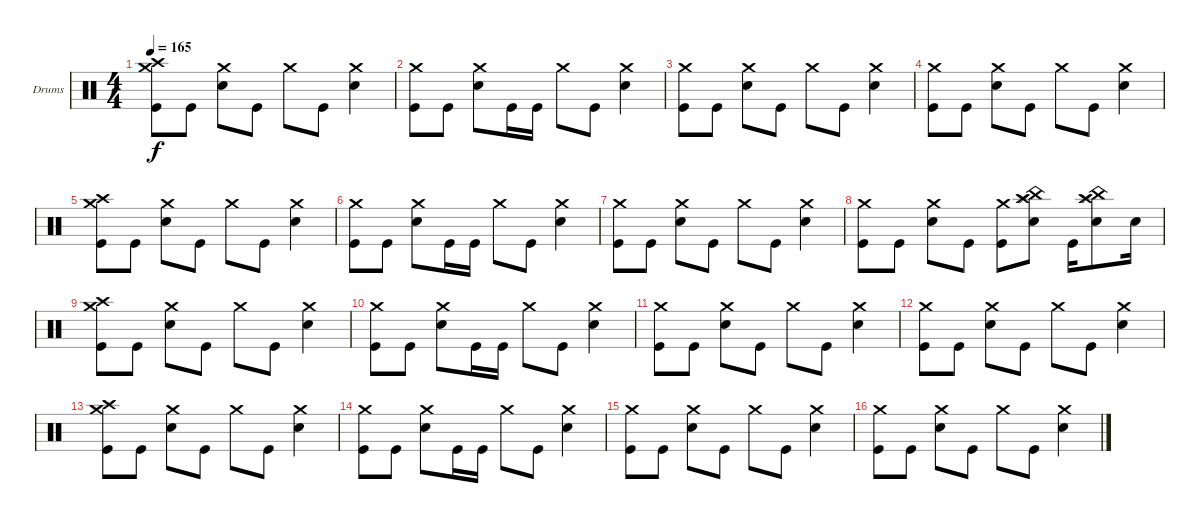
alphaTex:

\defaultSystemsLayout 4
\bracketExtendMode groupsimilarinstruments
\firstSystemTrackNameOrientation horizontal
\otherSystemsTrackNameOrientation horizontal
\track ("Drumkit" "Drums") {instrument percussion}
\staff {score}
\articulation defaults
\ts (4 4)
\tempo 165
\clef neutral
\ks c
("Kick (hit)" "Crash high (hit)" "Crash medium (hit)").8{dy f} "Kick (hit)".8 ("Snare (hit) 2" "Crash medium (hit)").8 "Kick (hit)".8 "Crash medium (hit)".8 "Kick (hit)".8 ("Snare (hit) 2" "Crash medium (hit)").4 |
("Kick (hit)" "Crash medium (hit)").8 "Kick (hit)".8 ("Snare (hit) 2" "Crash medium (hit)").8 "Kick (hit)".16 "Kick (hit)".16 "Crash medium (hit)".8 "Kick (hit)".8 ("Snare (hit) 2" "Crash medium (hit)").4 |
("Kick (hit)" "Crash medium (hit)").8 "Kick (hit)".8 ("Snare (hit) 2" "Crash medium (hit)").8 "Kick (hit)".8 "Crash medium (hit)".8 "Kick (hit)".8 ("Snare (hit) 2" "Crash medium (hit)").4 |
("Kick (hit)" "Crash medium (hit)").8 "Kick (hit)".8 ("Snare (hit) 2" "Crash medium (hit)").8 "Kick (hit)".8 "Crash medium (hit)".8 "Kick (hit)".8 ("Snare (hit) 2" "Crash medium (hit)").4 |
("Kick (hit)" "Crash high (hit)" "Crash medium (hit)").8 "Kick (hit)".8 ("Snare (hit) 2" "Crash medium (hit)").8 "Kick (hit)".8 "Crash medium (hit)".8 "Kick (hit)".8 ("Snare (hit) 2" "Crash medium (hit)").4 |
("Kick (hit)" "Crash medium (hit)").8 "Kick (hit)".8 ("Snare (hit) 2" "Crash medium (hit)").8 "Kick (hit)".16 "Kick (hit)".16 "Crash medium (hit)".8 "Kick (hit)".8 ("Snare (hit) 2" "Crash medium (hit)").4 |
("Kick (hit)" "Crash medium (hit)").8 "Kick (hit)".8 ("Snare (hit) 2" "Crash medium (hit)").8 "Kick (hit)".8 "Crash medium (hit)".8 "Kick (hit)".8 ("Snare (hit) 2" "Crash medium (hit)").4 |
("Kick (hit)" "Crash medium (hit)").8 "Kick (hit)".8 ("Snare (hit) 2" "Crash medium (hit)").8 "Kick (hit)".8 ("Kick (hit)" "Crash medium (hit)").8 ("Snare (hit) 2" "Splash (hit)" "Crash high (hit)" "China (hit)").8 "Kick (hit)".16 ("Snare (hit) 2" "Splash (hit)" "Crash high (hit)" "China (hit)").8 "Snare (hit) 2".16 |
("Kick (hit)" "Crash high (hit)" "Crash medium (hit)").8 "Kick (hit)".8 ("Snare (hit) 2" "Crash medium (hit)").8 "Kick (hit)".8 "Crash medium (hit)".8 "Kick (hit)".8 ("Snare (hit) 2" "Crash medium (hit)").4 |
("Kick (hit)" "Crash medium (hit)").8 "Kick (hit)".8 ("Snare (hit) 2" "Crash medium (hit)").8 "Kick (hit)".16 "Kick (hit)".16 "Crash medium (hit)".8 "Kick (hit)".8 ("Snare (hit) 2" "Crash medium (hit)").4 |
("Kick (hit)" "Crash medium (hit)").8 "Kick (hit)".8 ("Snare (hit) 2" "Crash medium (hit)").8 "Kick (hit)".8 "Crash medium (hit)".8 "Kick (hit)".8 ("Snare (hit) 2" "Crash medium (hit)").4 |
("Kick (hit)" "Crash medium (hit)").8 "Kick (hit)".8 ("Snare (hit) 2" "Crash medium (hit)").8 "Kick (hit)".8 "Crash medium (hit)".8 "Kick (hit)".8 ("Snare (hit) 2" "Crash medium (hit)").4 |
("Kick (hit)" "Crash high (hit)" "Crash medium (hit)").8 "Kick (hit)".8 ("Snare (hit) 2" "Crash medium (hit)").8 "Kick (hit)".8 "Crash medium (hit)".8 "Kick (hit)".8 ("Snare (hit) 2" "Crash medium (hit)").4 |
("Kick (hit)" "Crash medium (hit)").8 "Kick (hit)".8 ("Snare (hit) 2" "Crash medium (hit)").8 "Kick (hit)".16 "Kick (hit)".16 "Crash medium (hit)".8 "Kick (hit)".8 ("Snare (hit) 2" "Crash medium (hit)").4 |
("Kick (hit)" "Crash medium (hit)").8 "Kick (hit)".8 ("Snare (hit) 2" "Crash medium (hit)").8 "Kick (hit)".8 "Crash medium (hit)".8 "Kick (hit)".8 ("Snare (hit) 2" "Crash medium (hit)").4 |
("Kick (hit)" "Crash medium (hit)").8 "Kick (hit)".8 ("Snare (hit) 2" "Crash medium (hit)").8 "Kick (hit)".8 "Crash medium (hit)".8 "Kick (hit)".8 ("Snare (hit) 2" "Crash medium (hit)").4
